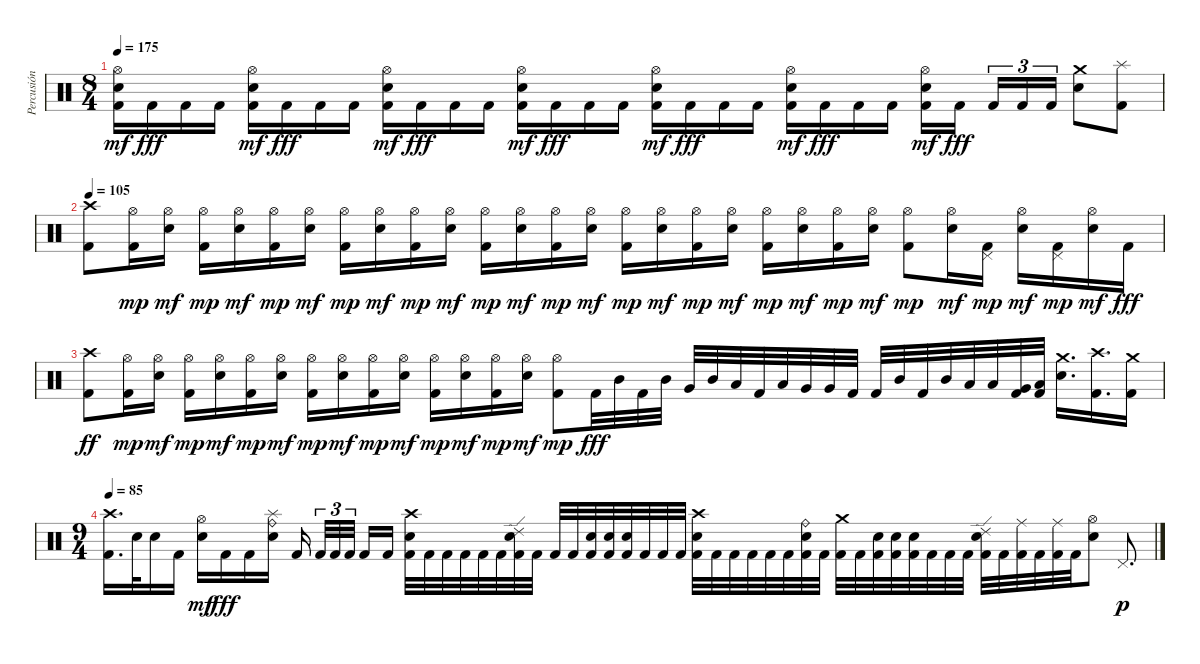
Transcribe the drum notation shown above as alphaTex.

\track ("Percusión" "Percusión") {instrument percussion}
\staff {score}
\articulation defaults
\ts (8 4)
\tempo 175
\clef neutral
\ks c
("Kick (hit) 2" "Electric Snare (hit)" "Hi-Hat (open)").16{dy mf} "Kick (hit) 2".16{dy fff} "Kick (hit) 2".16 "Kick (hit) 2".16 ("Kick (hit) 2" "Electric Snare (hit)" "Hi-Hat (open)").16{dy mf} "Kick (hit) 2".16{dy fff} "Kick (hit) 2".16 "Kick (hit) 2".16 ("Kick (hit) 2" "Electric Snare (hit)" "Hi-Hat (open)").16{dy mf} "Kick (hit) 2".16{dy fff} "Kick (hit) 2".16 "Kick (hit) 2".16 ("Kick (hit) 2" "Electric Snare (hit)" "Hi-Hat (open)").16{dy mf} "Kick (hit) 2".16{dy fff} "Kick (hit) 2".16 "Kick (hit) 2".16 ("Kick (hit) 2" "Electric Snare (hit)" "Hi-Hat (open)").16{dy mf} "Kick (hit) 2".16{dy fff} "Kick (hit) 2".16 "Kick (hit) 2".16 ("Kick (hit) 2" "Electric Snare (hit)" "Hi-Hat (open)").16{dy mf} "Kick (hit) 2".16{dy fff} "Kick (hit) 2".16 "Kick (hit) 2".16 ("Kick (hit) 2" "Electric Snare (hit)" "Hi-Hat (open)").16{dy mf} "Kick (hit) 2".16{dy fff beam splitsecondary} "Kick (hit) 2".16{tu (3 2)} "Kick (hit) 2".16{tu (3 2)} "Kick (hit) 2".16{tu (3 2)} ("Electric Snare (hit)" "Crash medium (hit)").8 ("Kick (hit) 2" "Splash (hit)").8 |
\tempo 105
("Kick (hit) 2" "Crash high (hit)").8 ("Kick (hit) 2" "Hi-Hat (open)").16{dy mp} ("Electric Snare (hit)" "Hi-Hat (open)").16{dy mf} ("Kick (hit) 2" "Hi-Hat (open)").16{dy mp} ("Electric Snare (hit)" "Hi-Hat (open)").16{dy mf} ("Kick (hit) 2" "Hi-Hat (open)").16{dy mp} ("Electric Snare (hit)" "Hi-Hat (open)").16{dy mf} ("Kick (hit) 2" "Hi-Hat (open)").16{dy mp} ("Electric Snare (hit)" "Hi-Hat (open)").16{dy mf} ("Kick (hit) 2" "Hi-Hat (open)").16{dy mp} ("Electric Snare (hit)" "Hi-Hat (open)").16{dy mf} ("Kick (hit) 2" "Hi-Hat (open)").16{dy mp} ("Electric Snare (hit)" "Hi-Hat (open)").16{dy mf} ("Kick (hit) 2" "Hi-Hat (open)").16{dy mp} ("Electric Snare (hit)" "Hi-Hat (open)").16{dy mf} ("Kick (hit) 2" "Hi-Hat (open)").16{dy mp} ("Electric Snare (hit)" "Hi-Hat (open)").16{dy mf} ("Kick (hit) 2" "Hi-Hat (open)").16{dy mp} ("Electric Snare (hit)" "Hi-Hat (open)").16{dy mf} ("Kick (hit) 2" "Hi-Hat (open)").16{dy mp} ("Electric Snare (hit)" "Hi-Hat (open)").16{dy mf} ("Kick (hit) 2" "Hi-Hat (open)").16{dy mp} ("Electric Snare (hit)" "Hi-Hat (open)").16{dy mf} ("Kick (hit) 2" "Hi-Hat (open)").8{dy mp} ("Electric Snare (hit)" "Hi-Hat (open)").16{dy mf} ("Kick (hit) 2" "Pedal Hi-Hat (hit)").16{dy mp} ("Electric Snare (hit)" "Hi-Hat (open)").16{dy mf} ("Kick (hit) 2" "Pedal Hi-Hat (hit)").16{dy mp} ("Electric Snare (hit)" "Hi-Hat (open)").16{dy mf} "Kick (hit) 2".16{dy fff} |
("Kick (hit) 2" "Crash high (hit)").8{dy ff} ("Kick (hit) 2" "Hi-Hat (open)").16{dy mp} ("Electric Snare (hit)" "Hi-Hat (open)").16{dy mf} ("Kick (hit) 2" "Hi-Hat (open)").16{dy mp} ("Electric Snare (hit)" "Hi-Hat (open)").16{dy mf} ("Kick (hit) 2" "Hi-Hat (open)").16{dy mp} ("Electric Snare (hit)" "Hi-Hat (open)").16{dy mf} ("Kick (hit) 2" "Hi-Hat (open)").16{dy mp} ("Electric Snare (hit)" "Hi-Hat (open)").16{dy mf} ("Kick (hit) 2" "Hi-Hat (open)").16{dy mp} ("Electric Snare (hit)" "Hi-Hat (open)").16{dy mf} ("Kick (hit) 2" "Hi-Hat (open)").16{dy mp} ("Electric Snare (hit)" "Hi-Hat (open)").16{dy mf} ("Kick (hit) 2" "Hi-Hat (open)").16{dy mp} ("Electric Snare (hit)" "Hi-Hat (open)").16{dy mf} ("Kick (hit) 2" "Hi-Hat (open)").8{dy mp} "Kick (hit) 2".32{dy fff} "Mid Tom (hit)".32 "Kick (hit) 2".32 "Mid Tom (hit)".32 "Very Low Tom (hit)".32 "Mid Tom (hit)".32 "Low Tom (hit)".32 "Kick (hit) 2".32 "Low Tom (hit)".32 "Very Low Tom (hit)".32 "Very Low Tom (hit)".32 "Kick (hit) 2".32 "Kick (hit) 2".32 "Mid Tom (hit)".32 "Kick (hit) 2".32 "Mid Tom (hit)".32 "Low Tom (hit)".32 "Low Tom (hit)".32 ("Kick (hit) 2" "Very Low Tom (hit)").32 ("Kick (hit) 2" "Low Floor Tom (hit)").32 ("Electric Snare (hit)" "Crash medium (hit)").16{d} ("Kick (hit) 2" "Crash high (hit)").16{d} ("Kick (hit) 2" "Crash medium (hit)").16 |
\ts (9 4)
\tempo 85
("Kick (hit) 2" "Crash high (hit)").16{d} "Electric Snare (hit)".32 "Electric Snare (hit)".16 "Kick (hit) 2".16 ("Electric Snare (hit)" "Hi-Hat (open)").16{dy mf} "Kick (hit) 2".16{dy fff} "Kick (hit) 2".16 ("Electric Snare (hit)" "Ride (bell)" "Splash (hit)").16 "Kick (hit) 2".16{beam splitsecondary} "Kick (hit) 2".32{tu (3 2)} "Kick (hit) 2".32{tu (3 2)} "Kick (hit) 2".32{tu (3 2) beam splitsecondary} "Kick (hit) 2".16 "Kick (hit) 2".16 ("Kick (hit) 2" "Electric Snare (hit)" "Crash high (hit)").32 "Kick (hit) 2".32 "Kick (hit) 2".32 "Kick (hit) 2".32 "Kick (hit) 2".32 "Kick (hit) 2".32 ("Kick (hit) 2" "Electric Snare (hit)" "Ride (edge) 2").32 "Kick (hit) 2".32 "Kick (hit) 2".32 "Kick (hit) 2".32 ("Kick (hit) 2" "Electric Snare (hit)").32 ("Kick (hit) 2" "Electric Snare (hit)").32 ("Kick (hit) 2" "Electric Snare (hit)").32 "Kick (hit) 2".32 "Kick (hit) 2".32 "Kick (hit) 2".32 ("Kick (hit) 2" "Electric Snare (hit)" "Crash high (hit)").32 "Kick (hit) 2".32 "Kick (hit) 2".32 "Kick (hit) 2".32 "Kick (hit) 2".32 "Kick (hit) 2".32 ("Kick (hit) 2" "Electric Snare (hit)" "Ride (bell)").32 "Kick (hit) 2".32 ("Kick (hit) 2" "Crash medium (hit)").32 "Kick (hit) 2".32 ("Kick (hit) 2" "Electric Snare (hit)").32 ("Kick (hit) 2" "Electric Snare (hit)").32 ("Kick (hit) 2" "Electric Snare (hit)").32 "Kick (hit) 2".32 "Kick (hit) 2".32 "Kick (hit) 2".32 ("Kick (hit) 2" "Electric Snare (hit)" "Ride (edge) 2").32 "Kick (hit) 2".32 ("Kick (hit) 2" "Ride (middle)").32 "Kick (hit) 2".32 ("Kick (hit) 2" "Ride (middle)").32 "Kick (hit) 2".32 ("Electric Snare (hit)" "Hi-Hat (open)").8 "Pedal Hi-Hat (hit)".8{d dy p}
